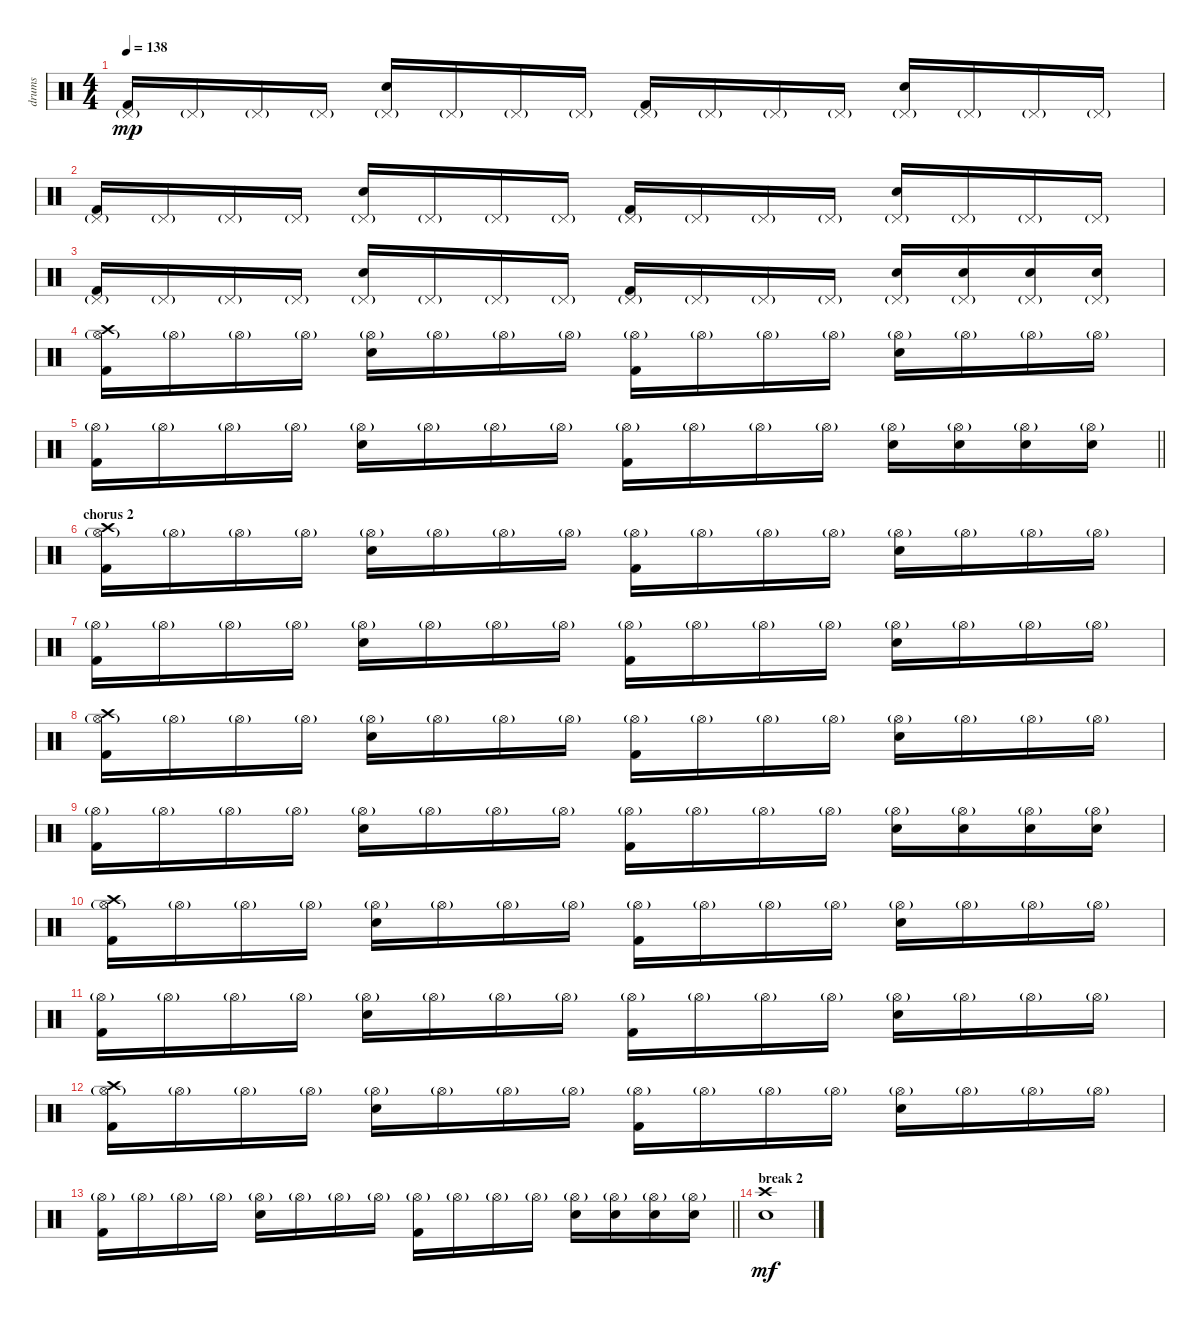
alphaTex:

\track ("drums" "drums") {instrument percussion}
\staff {score}
\articulation defaults
\ts (4 4)
\tempo 138
\clef neutral
\ks c
("Kick (hit) 2" "Pedal Hi-Hat (hit)"{g}).16{dy mp} "Pedal Hi-Hat (hit)"{g}.16 "Pedal Hi-Hat (hit)"{g}.16 "Pedal Hi-Hat (hit)"{g}.16 ("Electric Snare (hit)" "Pedal Hi-Hat (hit)"{g}).16 "Pedal Hi-Hat (hit)"{g}.16 "Pedal Hi-Hat (hit)"{g}.16 "Pedal Hi-Hat (hit)"{g}.16 ("Kick (hit) 2" "Pedal Hi-Hat (hit)"{g}).16 "Pedal Hi-Hat (hit)"{g}.16 "Pedal Hi-Hat (hit)"{g}.16 "Pedal Hi-Hat (hit)"{g}.16 ("Electric Snare (hit)" "Pedal Hi-Hat (hit)"{g}).16 "Pedal Hi-Hat (hit)"{g}.16 "Pedal Hi-Hat (hit)"{g}.16 "Pedal Hi-Hat (hit)"{g}.16 |
("Kick (hit) 2" "Pedal Hi-Hat (hit)"{g}).16 "Pedal Hi-Hat (hit)"{g}.16 "Pedal Hi-Hat (hit)"{g}.16 "Pedal Hi-Hat (hit)"{g}.16 ("Electric Snare (hit)" "Pedal Hi-Hat (hit)"{g}).16 "Pedal Hi-Hat (hit)"{g}.16 "Pedal Hi-Hat (hit)"{g}.16 "Pedal Hi-Hat (hit)"{g}.16 ("Kick (hit) 2" "Pedal Hi-Hat (hit)"{g}).16 "Pedal Hi-Hat (hit)"{g}.16 "Pedal Hi-Hat (hit)"{g}.16 "Pedal Hi-Hat (hit)"{g}.16 ("Electric Snare (hit)" "Pedal Hi-Hat (hit)"{g}).16 "Pedal Hi-Hat (hit)"{g}.16 "Pedal Hi-Hat (hit)"{g}.16 "Pedal Hi-Hat (hit)"{g}.16 |
("Kick (hit) 2" "Pedal Hi-Hat (hit)"{g}).16 "Pedal Hi-Hat (hit)"{g}.16 "Pedal Hi-Hat (hit)"{g}.16 "Pedal Hi-Hat (hit)"{g}.16 ("Electric Snare (hit)" "Pedal Hi-Hat (hit)"{g}).16 "Pedal Hi-Hat (hit)"{g}.16 "Pedal Hi-Hat (hit)"{g}.16 "Pedal Hi-Hat (hit)"{g}.16 ("Kick (hit) 2" "Pedal Hi-Hat (hit)"{g}).16 "Pedal Hi-Hat (hit)"{g}.16 "Pedal Hi-Hat (hit)"{g}.16 "Pedal Hi-Hat (hit)"{g}.16 ("Electric Snare (hit)" "Pedal Hi-Hat (hit)"{g}).16 ("Electric Snare (hit)" "Pedal Hi-Hat (hit)"{g}).16 ("Electric Snare (hit)" "Pedal Hi-Hat (hit)"{g}).16 ("Electric Snare (hit)" "Pedal Hi-Hat (hit)"{g}).16 |
("Kick (hit) 2" "Hi-Hat (open)"{g} "Crash high (hit)").16 "Hi-Hat (open)"{g}.16 "Hi-Hat (open)"{g}.16 "Hi-Hat (open)"{g}.16 ("Electric Snare (hit)" "Hi-Hat (open)"{g}).16 "Hi-Hat (open)"{g}.16 "Hi-Hat (open)"{g}.16 "Hi-Hat (open)"{g}.16 ("Kick (hit) 2" "Hi-Hat (open)"{g}).16 "Hi-Hat (open)"{g}.16 "Hi-Hat (open)"{g}.16 "Hi-Hat (open)"{g}.16 ("Electric Snare (hit)" "Hi-Hat (open)"{g}).16 "Hi-Hat (open)"{g}.16 "Hi-Hat (open)"{g}.16 "Hi-Hat (open)"{g}.16 |
\barLineRight lightlight
("Kick (hit) 2" "Hi-Hat (open)"{g}).16 "Hi-Hat (open)"{g}.16 "Hi-Hat (open)"{g}.16 "Hi-Hat (open)"{g}.16 ("Electric Snare (hit)" "Hi-Hat (open)"{g}).16 "Hi-Hat (open)"{g}.16 "Hi-Hat (open)"{g}.16 "Hi-Hat (open)"{g}.16 ("Kick (hit) 2" "Hi-Hat (open)"{g}).16 "Hi-Hat (open)"{g}.16 "Hi-Hat (open)"{g}.16 "Hi-Hat (open)"{g}.16 ("Electric Snare (hit)" "Hi-Hat (open)"{g}).16 ("Electric Snare (hit)" "Hi-Hat (open)"{g}).16 ("Electric Snare (hit)" "Hi-Hat (open)"{g}).16 ("Electric Snare (hit)" "Hi-Hat (open)"{g}).16 |
\section ("" "chorus 2")
("Kick (hit) 2" "Hi-Hat (open)"{g} "Crash high (hit)").16 "Hi-Hat (open)"{g}.16 "Hi-Hat (open)"{g}.16 "Hi-Hat (open)"{g}.16 ("Electric Snare (hit)" "Hi-Hat (open)"{g}).16 "Hi-Hat (open)"{g}.16 "Hi-Hat (open)"{g}.16 "Hi-Hat (open)"{g}.16 ("Kick (hit) 2" "Hi-Hat (open)"{g}).16 "Hi-Hat (open)"{g}.16 "Hi-Hat (open)"{g}.16 "Hi-Hat (open)"{g}.16 ("Electric Snare (hit)" "Hi-Hat (open)"{g}).16 "Hi-Hat (open)"{g}.16 "Hi-Hat (open)"{g}.16 "Hi-Hat (open)"{g}.16 |
("Kick (hit) 2" "Hi-Hat (open)"{g}).16 "Hi-Hat (open)"{g}.16 "Hi-Hat (open)"{g}.16 "Hi-Hat (open)"{g}.16 ("Electric Snare (hit)" "Hi-Hat (open)"{g}).16 "Hi-Hat (open)"{g}.16 "Hi-Hat (open)"{g}.16 "Hi-Hat (open)"{g}.16 ("Kick (hit) 2" "Hi-Hat (open)"{g}).16 "Hi-Hat (open)"{g}.16 "Hi-Hat (open)"{g}.16 "Hi-Hat (open)"{g}.16 ("Electric Snare (hit)" "Hi-Hat (open)"{g}).16 "Hi-Hat (open)"{g}.16 "Hi-Hat (open)"{g}.16 "Hi-Hat (open)"{g}.16 |
("Kick (hit) 2" "Hi-Hat (open)"{g} "Crash high (hit)").16 "Hi-Hat (open)"{g}.16 "Hi-Hat (open)"{g}.16 "Hi-Hat (open)"{g}.16 ("Electric Snare (hit)" "Hi-Hat (open)"{g}).16 "Hi-Hat (open)"{g}.16 "Hi-Hat (open)"{g}.16 "Hi-Hat (open)"{g}.16 ("Kick (hit) 2" "Hi-Hat (open)"{g}).16 "Hi-Hat (open)"{g}.16 "Hi-Hat (open)"{g}.16 "Hi-Hat (open)"{g}.16 ("Electric Snare (hit)" "Hi-Hat (open)"{g}).16 "Hi-Hat (open)"{g}.16 "Hi-Hat (open)"{g}.16 "Hi-Hat (open)"{g}.16 |
("Kick (hit) 2" "Hi-Hat (open)"{g}).16 "Hi-Hat (open)"{g}.16 "Hi-Hat (open)"{g}.16 "Hi-Hat (open)"{g}.16 ("Electric Snare (hit)" "Hi-Hat (open)"{g}).16 "Hi-Hat (open)"{g}.16 "Hi-Hat (open)"{g}.16 "Hi-Hat (open)"{g}.16 ("Kick (hit) 2" "Hi-Hat (open)"{g}).16 "Hi-Hat (open)"{g}.16 "Hi-Hat (open)"{g}.16 "Hi-Hat (open)"{g}.16 ("Electric Snare (hit)" "Hi-Hat (open)"{g}).16 ("Electric Snare (hit)" "Hi-Hat (open)"{g}).16 ("Electric Snare (hit)" "Hi-Hat (open)"{g}).16 ("Electric Snare (hit)" "Hi-Hat (open)"{g}).16 |
("Kick (hit) 2" "Hi-Hat (open)"{g} "Crash high (hit)").16 "Hi-Hat (open)"{g}.16 "Hi-Hat (open)"{g}.16 "Hi-Hat (open)"{g}.16 ("Electric Snare (hit)" "Hi-Hat (open)"{g}).16 "Hi-Hat (open)"{g}.16 "Hi-Hat (open)"{g}.16 "Hi-Hat (open)"{g}.16 ("Kick (hit) 2" "Hi-Hat (open)"{g}).16 "Hi-Hat (open)"{g}.16 "Hi-Hat (open)"{g}.16 "Hi-Hat (open)"{g}.16 ("Electric Snare (hit)" "Hi-Hat (open)"{g}).16 "Hi-Hat (open)"{g}.16 "Hi-Hat (open)"{g}.16 "Hi-Hat (open)"{g}.16 |
("Kick (hit) 2" "Hi-Hat (open)"{g}).16 "Hi-Hat (open)"{g}.16 "Hi-Hat (open)"{g}.16 "Hi-Hat (open)"{g}.16 ("Electric Snare (hit)" "Hi-Hat (open)"{g}).16 "Hi-Hat (open)"{g}.16 "Hi-Hat (open)"{g}.16 "Hi-Hat (open)"{g}.16 ("Kick (hit) 2" "Hi-Hat (open)"{g}).16 "Hi-Hat (open)"{g}.16 "Hi-Hat (open)"{g}.16 "Hi-Hat (open)"{g}.16 ("Electric Snare (hit)" "Hi-Hat (open)"{g}).16 "Hi-Hat (open)"{g}.16 "Hi-Hat (open)"{g}.16 "Hi-Hat (open)"{g}.16 |
("Kick (hit) 2" "Hi-Hat (open)"{g} "Crash high (hit)").16 "Hi-Hat (open)"{g}.16 "Hi-Hat (open)"{g}.16 "Hi-Hat (open)"{g}.16 ("Electric Snare (hit)" "Hi-Hat (open)"{g}).16 "Hi-Hat (open)"{g}.16 "Hi-Hat (open)"{g}.16 "Hi-Hat (open)"{g}.16 ("Kick (hit) 2" "Hi-Hat (open)"{g}).16 "Hi-Hat (open)"{g}.16 "Hi-Hat (open)"{g}.16 "Hi-Hat (open)"{g}.16 ("Electric Snare (hit)" "Hi-Hat (open)"{g}).16 "Hi-Hat (open)"{g}.16 "Hi-Hat (open)"{g}.16 "Hi-Hat (open)"{g}.16 |
\barLineRight lightlight
("Kick (hit) 2" "Hi-Hat (open)"{g}).16 "Hi-Hat (open)"{g}.16 "Hi-Hat (open)"{g}.16 "Hi-Hat (open)"{g}.16 ("Electric Snare (hit)" "Hi-Hat (open)"{g}).16 "Hi-Hat (open)"{g}.16 "Hi-Hat (open)"{g}.16 "Hi-Hat (open)"{g}.16 ("Kick (hit) 2" "Hi-Hat (open)"{g}).16 "Hi-Hat (open)"{g}.16 "Hi-Hat (open)"{g}.16 "Hi-Hat (open)"{g}.16 ("Electric Snare (hit)" "Hi-Hat (open)"{g}).16 ("Electric Snare (hit)" "Hi-Hat (open)"{g}).16 ("Electric Snare (hit)" "Hi-Hat (open)"{g}).16 ("Electric Snare (hit)" "Hi-Hat (open)"{g}).16 |
\section ("" "break 2")
("Electric Snare (hit)" "Crash high (hit)").1{dy mf}
